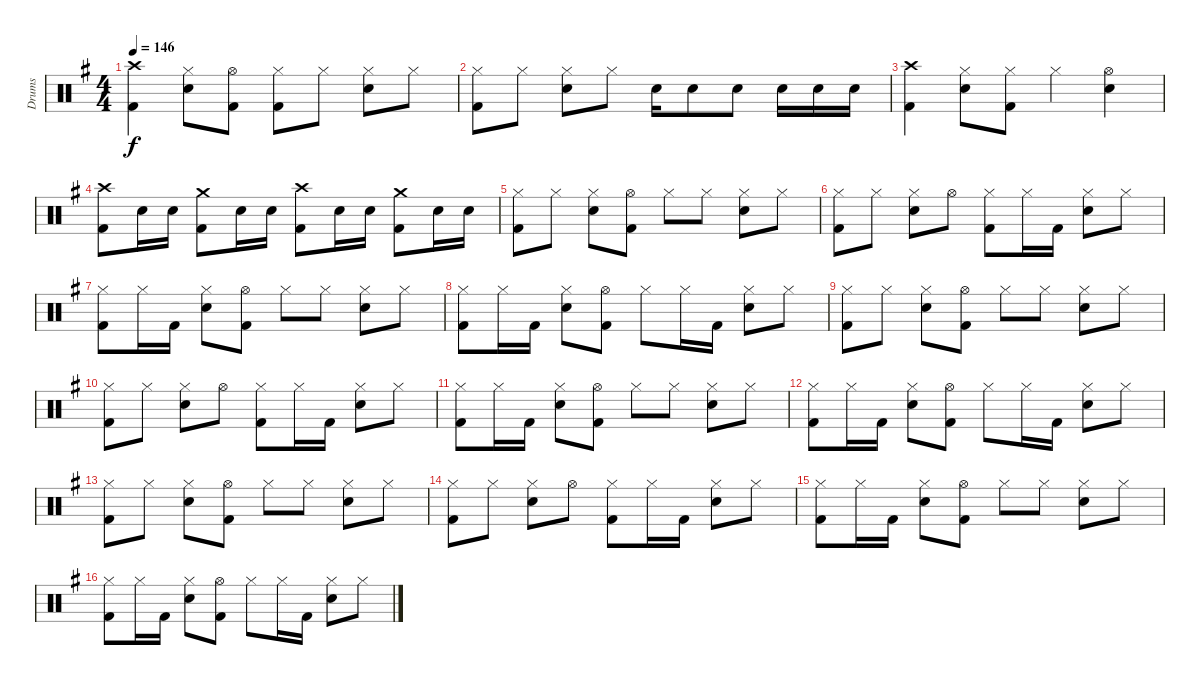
\track ("Drums" "Drums") {instrument percussion}
\staff {score}
\articulation defaults
\ts (4 4)
\tempo 146
\clef neutral
\ks g
("Kick (hit) 2" "Crash high (hit)").4{dy f} ("Snare (hit) 2" "Hi-Hat (closed)").8 ("Kick (hit) 2" "Hi-Hat (open)").8 ("Kick (hit) 2" "Hi-Hat (closed)").8 "Hi-Hat (closed)".8 ("Snare (hit) 2" "Hi-Hat (closed)").8 "Hi-Hat (closed)".8 |
("Kick (hit) 2" "Hi-Hat (closed)").8 "Hi-Hat (closed)".8 ("Snare (hit) 2" "Hi-Hat (closed)").8 "Hi-Hat (closed)".8 "Snare (hit) 2".16 "Snare (hit) 2".8 "Snare (hit) 2".8 "Snare (hit) 2".16 "Snare (hit) 2".16 "Snare (hit) 2".16 |
("Kick (hit) 2" "Crash high (hit)").4 ("Snare (hit) 2" "Hi-Hat (closed)").8 ("Kick (hit) 2" "Hi-Hat (closed)").8 "Hi-Hat (closed)".4 ("Snare (hit) 2" "Hi-Hat (open)").4 |
("Kick (hit) 2" "Crash high (hit)").8 "Snare (hit) 2".16 "Snare (hit) 2".16 ("Kick (hit) 2" "Crash medium (hit)").8 "Snare (hit) 2".16 "Snare (hit) 2".16 ("Kick (hit) 2" "Crash high (hit)").8 "Snare (hit) 2".16 "Snare (hit) 2".16 ("Kick (hit) 2" "Crash medium (hit)").8 "Snare (hit) 2".16 "Snare (hit) 2".16 |
("Kick (hit) 2" "Hi-Hat (closed)").8 "Hi-Hat (closed)".8 ("Snare (hit) 2" "Hi-Hat (closed)").8 ("Kick (hit) 2" "Hi-Hat (open)").8 "Hi-Hat (closed)".8 "Hi-Hat (closed)".8 ("Snare (hit) 2" "Hi-Hat (closed)").8 "Hi-Hat (closed)".8 |
("Kick (hit) 2" "Hi-Hat (closed)").8 "Hi-Hat (closed)".8 ("Snare (hit) 2" "Hi-Hat (closed)").8 "Hi-Hat (open)".8 ("Kick (hit) 2" "Hi-Hat (closed)").8 "Hi-Hat (closed)".16 "Kick (hit) 2".16 ("Snare (hit) 2" "Hi-Hat (closed)").8 "Hi-Hat (closed)".8 |
("Kick (hit) 2" "Hi-Hat (closed)").8 "Hi-Hat (closed)".16 "Kick (hit) 2".16 ("Snare (hit) 2" "Hi-Hat (closed)").8 ("Kick (hit) 2" "Hi-Hat (open)").8 "Hi-Hat (closed)".8 "Hi-Hat (closed)".8 ("Snare (hit) 2" "Hi-Hat (closed)").8 "Hi-Hat (closed)".8 |
("Kick (hit) 2" "Hi-Hat (closed)").8 "Hi-Hat (closed)".16 "Kick (hit) 2".16 ("Snare (hit) 2" "Hi-Hat (closed)").8 ("Kick (hit) 2" "Hi-Hat (open)").8 "Hi-Hat (closed)".8 "Hi-Hat (closed)".16 "Kick (hit) 2".16 ("Snare (hit) 2" "Hi-Hat (closed)").8 "Hi-Hat (closed)".8 |
("Kick (hit) 2" "Hi-Hat (closed)").8 "Hi-Hat (closed)".8 ("Snare (hit) 2" "Hi-Hat (closed)").8 ("Kick (hit) 2" "Hi-Hat (open)").8 "Hi-Hat (closed)".8 "Hi-Hat (closed)".8 ("Snare (hit) 2" "Hi-Hat (closed)").8 "Hi-Hat (closed)".8 |
("Kick (hit) 2" "Hi-Hat (closed)").8 "Hi-Hat (closed)".8 ("Snare (hit) 2" "Hi-Hat (closed)").8 "Hi-Hat (open)".8 ("Kick (hit) 2" "Hi-Hat (closed)").8 "Hi-Hat (closed)".16 "Kick (hit) 2".16 ("Snare (hit) 2" "Hi-Hat (closed)").8 "Hi-Hat (closed)".8 |
("Kick (hit) 2" "Hi-Hat (closed)").8 "Hi-Hat (closed)".16 "Kick (hit) 2".16 ("Snare (hit) 2" "Hi-Hat (closed)").8 ("Kick (hit) 2" "Hi-Hat (open)").8 "Hi-Hat (closed)".8 "Hi-Hat (closed)".8 ("Snare (hit) 2" "Hi-Hat (closed)").8 "Hi-Hat (closed)".8 |
("Kick (hit) 2" "Hi-Hat (closed)").8 "Hi-Hat (closed)".16 "Kick (hit) 2".16 ("Snare (hit) 2" "Hi-Hat (closed)").8 ("Kick (hit) 2" "Hi-Hat (open)").8 "Hi-Hat (closed)".8 "Hi-Hat (closed)".16 "Kick (hit) 2".16 ("Snare (hit) 2" "Hi-Hat (closed)").8 "Hi-Hat (closed)".8 |
("Kick (hit) 2" "Hi-Hat (closed)").8 "Hi-Hat (closed)".8 ("Snare (hit) 2" "Hi-Hat (closed)").8 ("Kick (hit) 2" "Hi-Hat (open)").8 "Hi-Hat (closed)".8 "Hi-Hat (closed)".8 ("Snare (hit) 2" "Hi-Hat (closed)").8 "Hi-Hat (closed)".8 |
("Kick (hit) 2" "Hi-Hat (closed)").8 "Hi-Hat (closed)".8 ("Snare (hit) 2" "Hi-Hat (closed)").8 "Hi-Hat (open)".8 ("Kick (hit) 2" "Hi-Hat (closed)").8 "Hi-Hat (closed)".16 "Kick (hit) 2".16 ("Snare (hit) 2" "Hi-Hat (closed)").8 "Hi-Hat (closed)".8 |
("Kick (hit) 2" "Hi-Hat (closed)").8 "Hi-Hat (closed)".16 "Kick (hit) 2".16 ("Snare (hit) 2" "Hi-Hat (closed)").8 ("Kick (hit) 2" "Hi-Hat (open)").8 "Hi-Hat (closed)".8 "Hi-Hat (closed)".8 ("Snare (hit) 2" "Hi-Hat (closed)").8 "Hi-Hat (closed)".8 |
("Kick (hit) 2" "Hi-Hat (closed)").8 "Hi-Hat (closed)".16 "Kick (hit) 2".16 ("Snare (hit) 2" "Hi-Hat (closed)").8 ("Kick (hit) 2" "Hi-Hat (open)").8 "Hi-Hat (closed)".8 "Hi-Hat (closed)".16 "Kick (hit) 2".16 ("Snare (hit) 2" "Hi-Hat (closed)").8 "Hi-Hat (closed)".8
